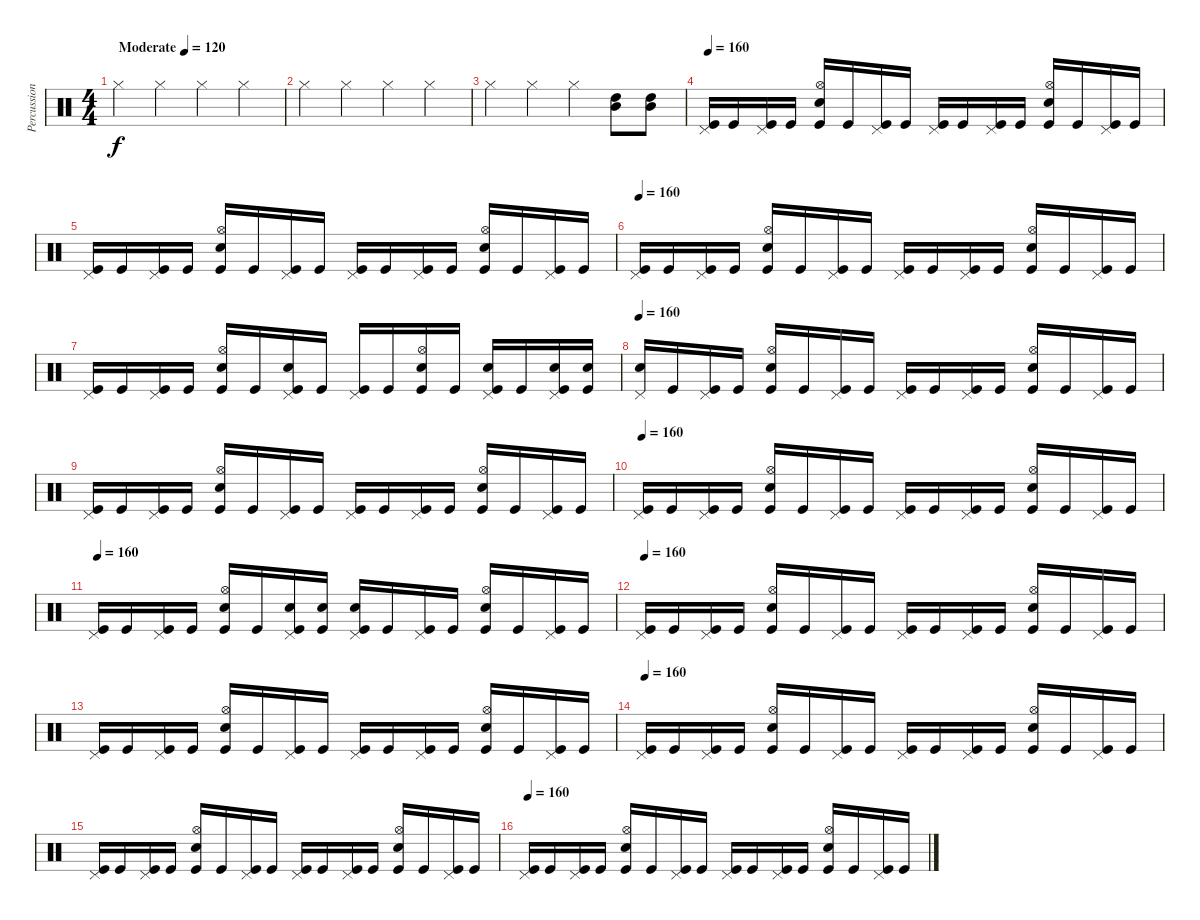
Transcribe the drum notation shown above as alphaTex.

\track ("Percussion" "Percussion") {instrument percussion}
\staff {score}
\articulation defaults
\ts (4 4)
\tempo (120 "Moderate")
\clef neutral
\ks c "Hi-Hat (closed)".4{dy f} "Hi-Hat (closed)".4 "Hi-Hat (closed)".4 "Hi-Hat (closed)".4
|
"Hi-Hat (closed)".4 "Hi-Hat (closed)".4 "Hi-Hat (closed)".4 "Hi-Hat (closed)".4 |
"Hi-Hat (closed)".4 "Hi-Hat (closed)".4 "Hi-Hat (closed)".4 ("High Tom (hit)" "Mid Tom (hit)").8 ("High Tom (hit)" "Mid Tom (hit)").8 |
\tempo 160
("Pedal Hi-Hat (hit)" "Kick (hit)").16 "Kick (hit)".16 ("Pedal Hi-Hat (hit)" "Kick (hit)").16 "Kick (hit)".16 ("Hi-Hat (open)" "Electric Snare (hit)" "Kick (hit)").16 "Kick (hit)".16 ("Pedal Hi-Hat (hit)" "Kick (hit)").16 "Kick (hit)".16 ("Pedal Hi-Hat (hit)" "Kick (hit)").16 "Kick (hit)".16 ("Pedal Hi-Hat (hit)" "Kick (hit)").16 "Kick (hit)".16 ("Hi-Hat (open)" "Electric Snare (hit)" "Kick (hit)").16 "Kick (hit)".16 ("Pedal Hi-Hat (hit)" "Kick (hit)").16 "Kick (hit)".16 |
("Pedal Hi-Hat (hit)" "Kick (hit)").16 "Kick (hit)".16 ("Pedal Hi-Hat (hit)" "Kick (hit)").16 "Kick (hit)".16 ("Hi-Hat (open)" "Electric Snare (hit)" "Kick (hit)").16 "Kick (hit)".16 ("Pedal Hi-Hat (hit)" "Kick (hit)").16 "Kick (hit)".16 ("Pedal Hi-Hat (hit)" "Kick (hit)").16 "Kick (hit)".16 ("Pedal Hi-Hat (hit)" "Kick (hit)").16 "Kick (hit)".16 ("Hi-Hat (open)" "Electric Snare (hit)" "Kick (hit)").16 "Kick (hit)".16 ("Pedal Hi-Hat (hit)" "Kick (hit)").16 "Kick (hit)".16 |
\tempo 160
("Pedal Hi-Hat (hit)" "Kick (hit)").16 "Kick (hit)".16 ("Pedal Hi-Hat (hit)" "Kick (hit)").16 "Kick (hit)".16 ("Hi-Hat (open)" "Electric Snare (hit)" "Kick (hit)").16 "Kick (hit)".16 ("Pedal Hi-Hat (hit)" "Kick (hit)").16 "Kick (hit)".16 ("Pedal Hi-Hat (hit)" "Kick (hit)").16 "Kick (hit)".16 ("Pedal Hi-Hat (hit)" "Kick (hit)").16 "Kick (hit)".16 ("Hi-Hat (open)" "Electric Snare (hit)" "Kick (hit)").16 "Kick (hit)".16 ("Pedal Hi-Hat (hit)" "Kick (hit)").16 "Kick (hit)".16 |
("Pedal Hi-Hat (hit)" "Kick (hit)").16 "Kick (hit)".16 ("Pedal Hi-Hat (hit)" "Kick (hit)").16 "Kick (hit)".16 ("Hi-Hat (open)" "Electric Snare (hit)" "Kick (hit)").16 "Kick (hit)".16 ("Pedal Hi-Hat (hit)" "Electric Snare (hit)" "Kick (hit)").16 "Kick (hit)".16 ("Pedal Hi-Hat (hit)" "Kick (hit)").16 "Kick (hit)".16 ("Hi-Hat (open)" "Electric Snare (hit)" "Kick (hit)").16 "Kick (hit)".16 ("Pedal Hi-Hat (hit)" "Electric Snare (hit)" "Kick (hit)").16 "Kick (hit)".16 ("Pedal Hi-Hat (hit)" "Electric Snare (hit)" "Kick (hit)").16 ("Electric Snare (hit)" "Kick (hit)").16 |
\tempo 160
("Pedal Hi-Hat (hit)" "Snare (hit)").16 "Kick (hit)".16 ("Pedal Hi-Hat (hit)" "Kick (hit)").16 "Kick (hit)".16 ("Hi-Hat (open)" "Electric Snare (hit)" "Kick (hit)").16 "Kick (hit)".16 ("Pedal Hi-Hat (hit)" "Kick (hit)").16 "Kick (hit)".16 ("Pedal Hi-Hat (hit)" "Kick (hit)").16 "Kick (hit)".16 ("Pedal Hi-Hat (hit)" "Kick (hit)").16 "Kick (hit)".16 ("Hi-Hat (open)" "Electric Snare (hit)" "Kick (hit)").16 "Kick (hit)".16 ("Pedal Hi-Hat (hit)" "Kick (hit)").16 "Kick (hit)".16 |
("Pedal Hi-Hat (hit)" "Kick (hit)").16 "Kick (hit)".16 ("Pedal Hi-Hat (hit)" "Kick (hit)").16 "Kick (hit)".16 ("Hi-Hat (open)" "Electric Snare (hit)" "Kick (hit)").16 "Kick (hit)".16 ("Pedal Hi-Hat (hit)" "Kick (hit)").16 "Kick (hit)".16 ("Pedal Hi-Hat (hit)" "Kick (hit)").16 "Kick (hit)".16 ("Pedal Hi-Hat (hit)" "Kick (hit)").16 "Kick (hit)".16 ("Hi-Hat (open)" "Electric Snare (hit)" "Kick (hit)").16 "Kick (hit)".16 ("Pedal Hi-Hat (hit)" "Kick (hit)").16 "Kick (hit)".16 |
\tempo 160
("Pedal Hi-Hat (hit)" "Kick (hit)").16 "Kick (hit)".16 ("Pedal Hi-Hat (hit)" "Kick (hit)").16 "Kick (hit)".16 ("Hi-Hat (open)" "Electric Snare (hit)" "Kick (hit)").16 "Kick (hit)".16 ("Pedal Hi-Hat (hit)" "Kick (hit)").16 "Kick (hit)".16 ("Pedal Hi-Hat (hit)" "Kick (hit)").16 "Kick (hit)".16 ("Pedal Hi-Hat (hit)" "Kick (hit)").16 "Kick (hit)".16 ("Hi-Hat (open)" "Electric Snare (hit)" "Kick (hit)").16 "Kick (hit)".16 ("Pedal Hi-Hat (hit)" "Kick (hit)").16 "Kick (hit)".16 |
\tempo 160
("Pedal Hi-Hat (hit)" "Kick (hit)").16 "Kick (hit)".16 ("Pedal Hi-Hat (hit)" "Kick (hit)").16 "Kick (hit)".16 ("Hi-Hat (open)" "Electric Snare (hit)" "Kick (hit)").16 "Kick (hit)".16 ("Pedal Hi-Hat (hit)" "Electric Snare (hit)" "Kick (hit)").16 ("Electric Snare (hit)" "Kick (hit)").16 ("Pedal Hi-Hat (hit)" "Electric Snare (hit)" "Kick (hit)").16 "Kick (hit)".16 ("Pedal Hi-Hat (hit)" "Kick (hit)").16 "Kick (hit)".16 ("Hi-Hat (open)" "Electric Snare (hit)" "Kick (hit)").16 "Kick (hit)".16 ("Pedal Hi-Hat (hit)" "Kick (hit)").16 "Kick (hit)".16 |
\tempo 160
("Pedal Hi-Hat (hit)" "Kick (hit)").16 "Kick (hit)".16 ("Pedal Hi-Hat (hit)" "Kick (hit)").16 "Kick (hit)".16 ("Hi-Hat (open)" "Electric Snare (hit)" "Kick (hit)").16 "Kick (hit)".16 ("Pedal Hi-Hat (hit)" "Kick (hit)").16 "Kick (hit)".16 ("Pedal Hi-Hat (hit)" "Kick (hit)").16 "Kick (hit)".16 ("Pedal Hi-Hat (hit)" "Kick (hit)").16 "Kick (hit)".16 ("Hi-Hat (open)" "Electric Snare (hit)" "Kick (hit)").16 "Kick (hit)".16 ("Pedal Hi-Hat (hit)" "Kick (hit)").16 "Kick (hit)".16 |
("Pedal Hi-Hat (hit)" "Kick (hit)").16 "Kick (hit)".16 ("Pedal Hi-Hat (hit)" "Kick (hit)").16 "Kick (hit)".16 ("Hi-Hat (open)" "Electric Snare (hit)" "Kick (hit)").16 "Kick (hit)".16 ("Pedal Hi-Hat (hit)" "Kick (hit)").16 "Kick (hit)".16 ("Pedal Hi-Hat (hit)" "Kick (hit)").16 "Kick (hit)".16 ("Pedal Hi-Hat (hit)" "Kick (hit)").16 "Kick (hit)".16 ("Hi-Hat (open)" "Electric Snare (hit)" "Kick (hit)").16 "Kick (hit)".16 ("Pedal Hi-Hat (hit)" "Kick (hit)").16 "Kick (hit)".16 |
\tempo 160
("Pedal Hi-Hat (hit)" "Kick (hit)").16 "Kick (hit)".16 ("Pedal Hi-Hat (hit)" "Kick (hit)").16 "Kick (hit)".16 ("Hi-Hat (open)" "Electric Snare (hit)" "Kick (hit)").16 "Kick (hit)".16 ("Pedal Hi-Hat (hit)" "Kick (hit)").16 "Kick (hit)".16 ("Pedal Hi-Hat (hit)" "Kick (hit)").16 "Kick (hit)".16 ("Pedal Hi-Hat (hit)" "Kick (hit)").16 "Kick (hit)".16 ("Hi-Hat (open)" "Electric Snare (hit)" "Kick (hit)").16 "Kick (hit)".16 ("Pedal Hi-Hat (hit)" "Kick (hit)").16 "Kick (hit)".16 |
("Pedal Hi-Hat (hit)" "Kick (hit)").16 "Kick (hit)".16 ("Pedal Hi-Hat (hit)" "Kick (hit)").16 "Kick (hit)".16 ("Hi-Hat (open)" "Electric Snare (hit)" "Kick (hit)").16 "Kick (hit)".16 ("Pedal Hi-Hat (hit)" "Kick (hit)").16 "Kick (hit)".16 ("Pedal Hi-Hat (hit)" "Kick (hit)").16 "Kick (hit)".16 ("Pedal Hi-Hat (hit)" "Kick (hit)").16 "Kick (hit)".16 ("Hi-Hat (open)" "Electric Snare (hit)" "Kick (hit)").16 "Kick (hit)".16 ("Pedal Hi-Hat (hit)" "Kick (hit)").16 "Kick (hit)".16 |
\tempo 160
("Pedal Hi-Hat (hit)" "Kick (hit)").16 "Kick (hit)".16 ("Pedal Hi-Hat (hit)" "Kick (hit)").16 "Kick (hit)".16 ("Hi-Hat (open)" "Electric Snare (hit)" "Kick (hit)").16 "Kick (hit)".16 ("Pedal Hi-Hat (hit)" "Kick (hit)").16 "Kick (hit)".16 ("Pedal Hi-Hat (hit)" "Kick (hit)").16 "Kick (hit)".16 ("Pedal Hi-Hat (hit)" "Kick (hit)").16 "Kick (hit)".16 ("Hi-Hat (open)" "Electric Snare (hit)" "Kick (hit)").16 "Kick (hit)".16 ("Pedal Hi-Hat (hit)" "Kick (hit)").16 "Kick (hit)".16
